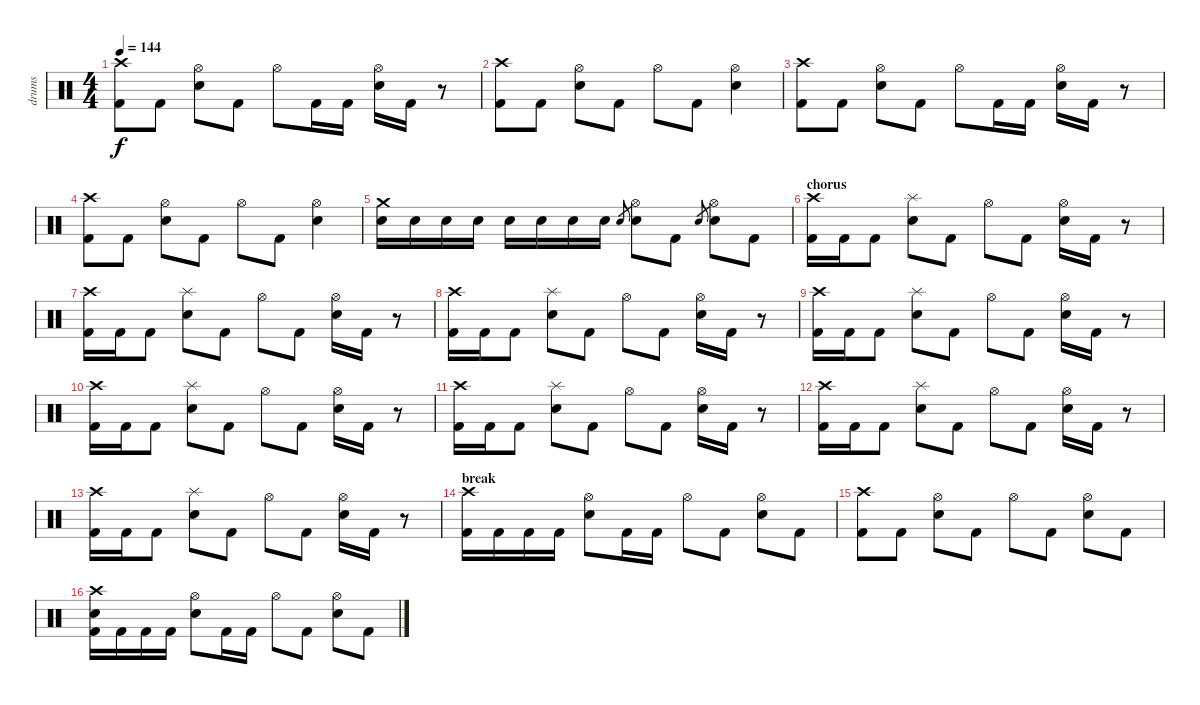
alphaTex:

\track ("drums" "drums") {instrument percussion}
\staff {score}
\articulation defaults
\ts (4 4)
\tempo 144
\clef neutral
\ks c
("Crash high (hit)" "Kick (hit) 2").8{dy f} "Kick (hit) 2".8 ("Hi-Hat (open)" "Electric Snare (hit)").8 "Kick (hit) 2".8 "Hi-Hat (open)".8 "Kick (hit) 2".16 "Kick (hit) 2".16 ("Hi-Hat (open)" "Electric Snare (hit)").16 "Kick (hit) 2".16 r.8 |
("Crash high (hit)" "Kick (hit) 2").8 "Kick (hit) 2".8 ("Hi-Hat (open)" "Electric Snare (hit)").8 "Kick (hit) 2".8 "Hi-Hat (open)".8 "Kick (hit) 2".8 ("Hi-Hat (open)" "Electric Snare (hit)").4 |
("Crash high (hit)" "Kick (hit) 2").8 "Kick (hit) 2".8 ("Hi-Hat (open)" "Electric Snare (hit)").8 "Kick (hit) 2".8 "Hi-Hat (open)".8 "Kick (hit) 2".16 "Kick (hit) 2".16 ("Hi-Hat (open)" "Electric Snare (hit)").16 "Kick (hit) 2".16 r.8 |
("Crash high (hit)" "Kick (hit) 2").8 "Kick (hit) 2".8 ("Hi-Hat (open)" "Electric Snare (hit)").8 "Kick (hit) 2".8 "Hi-Hat (open)".8 "Kick (hit) 2".8 ("Hi-Hat (open)" "Electric Snare (hit)").4 |
("Crash medium (hit)" "Electric Snare (hit)").16 "Electric Snare (hit)".16 "Electric Snare (hit)".16 "Electric Snare (hit)".16 "Electric Snare (hit)".16 "Electric Snare (hit)".16 "Electric Snare (hit)".16 "Electric Snare (hit)".16 "Electric Snare (hit)".8{gr} ("Hi-Hat (open)" "Electric Snare (hit)").8 "Kick (hit) 2".8 "Electric Snare (hit)".8{gr} ("Hi-Hat (open)" "Electric Snare (hit)").8 "Kick (hit) 2".8 |
\section ("" "chorus")
("Crash high (hit)" "Kick (hit) 2").16 "Kick (hit) 2".16 "Kick (hit) 2".8 ("Splash (hit)" "Electric Snare (hit)").8 "Kick (hit) 2".8 "Hi-Hat (open)".8 "Kick (hit) 2".8 ("Hi-Hat (open)" "Electric Snare (hit)").16 "Kick (hit) 2".16 r.8 |
("Crash high (hit)" "Kick (hit) 2").16 "Kick (hit) 2".16 "Kick (hit) 2".8 ("Splash (hit)" "Electric Snare (hit)").8 "Kick (hit) 2".8 "Hi-Hat (open)".8 "Kick (hit) 2".8 ("Hi-Hat (open)" "Electric Snare (hit)").16 "Kick (hit) 2".16 r.8 |
("Crash high (hit)" "Kick (hit) 2").16 "Kick (hit) 2".16 "Kick (hit) 2".8 ("Splash (hit)" "Electric Snare (hit)").8 "Kick (hit) 2".8 "Hi-Hat (open)".8 "Kick (hit) 2".8 ("Hi-Hat (open)" "Electric Snare (hit)").16 "Kick (hit) 2".16 r.8 |
("Crash high (hit)" "Kick (hit) 2").16 "Kick (hit) 2".16 "Kick (hit) 2".8 ("Splash (hit)" "Electric Snare (hit)").8 "Kick (hit) 2".8 "Hi-Hat (open)".8 "Kick (hit) 2".8 ("Hi-Hat (open)" "Electric Snare (hit)").16 "Kick (hit) 2".16 r.8 |
("Crash high (hit)" "Kick (hit) 2").16 "Kick (hit) 2".16 "Kick (hit) 2".8 ("Splash (hit)" "Electric Snare (hit)").8 "Kick (hit) 2".8 "Hi-Hat (open)".8 "Kick (hit) 2".8 ("Hi-Hat (open)" "Electric Snare (hit)").16 "Kick (hit) 2".16 r.8 |
("Crash high (hit)" "Kick (hit) 2").16 "Kick (hit) 2".16 "Kick (hit) 2".8 ("Splash (hit)" "Electric Snare (hit)").8 "Kick (hit) 2".8 "Hi-Hat (open)".8 "Kick (hit) 2".8 ("Hi-Hat (open)" "Electric Snare (hit)").16 "Kick (hit) 2".16 r.8 |
("Crash high (hit)" "Kick (hit) 2").16 "Kick (hit) 2".16 "Kick (hit) 2".8 ("Splash (hit)" "Electric Snare (hit)").8 "Kick (hit) 2".8 "Hi-Hat (open)".8 "Kick (hit) 2".8 ("Hi-Hat (open)" "Electric Snare (hit)").16 "Kick (hit) 2".16 r.8 |
("Crash high (hit)" "Kick (hit) 2").16 "Kick (hit) 2".16 "Kick (hit) 2".8 ("Splash (hit)" "Electric Snare (hit)").8 "Kick (hit) 2".8 "Hi-Hat (open)".8 "Kick (hit) 2".8 ("Hi-Hat (open)" "Electric Snare (hit)").16 "Kick (hit) 2".16 r.8 |
\section ("" "break")
("Crash high (hit)" "Kick (hit) 2").16 "Kick (hit) 2".16 "Kick (hit) 2".16 "Kick (hit) 2".16 ("Hi-Hat (open)" "Electric Snare (hit)").8 "Kick (hit) 2".16 "Kick (hit) 2".16 "Hi-Hat (open)".8 "Kick (hit) 2".8 ("Hi-Hat (open)" "Electric Snare (hit)").8 "Kick (hit) 2".8 |
("Crash high (hit)" "Kick (hit) 2").8 "Kick (hit) 2".8 ("Hi-Hat (open)" "Electric Snare (hit)").8 "Kick (hit) 2".8 "Hi-Hat (open)".8 "Kick (hit) 2".8 ("Hi-Hat (open)" "Electric Snare (hit)").8 "Kick (hit) 2".8 |
("Crash high (hit)" "Electric Snare (hit)" "Kick (hit) 2").16 "Kick (hit) 2".16 "Kick (hit) 2".16 "Kick (hit) 2".16 ("Hi-Hat (open)" "Electric Snare (hit)").8 "Kick (hit) 2".16 "Kick (hit) 2".16 "Hi-Hat (open)".8 "Kick (hit) 2".8 ("Hi-Hat (open)" "Electric Snare (hit)").8 "Kick (hit) 2".8
